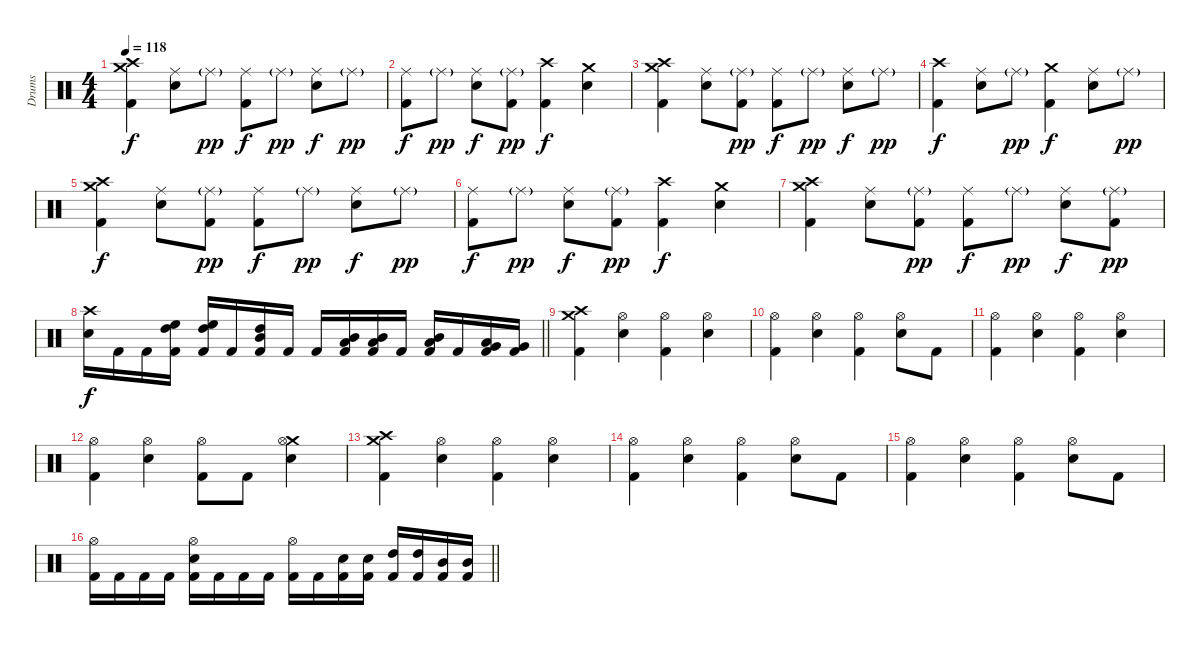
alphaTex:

\track ("Drums" "Drums") {instrument percussion}
\staff {score}
\articulation defaults
\ts (4 4)
\tempo 118
\clef neutral
\ks c
("Crash high (hit)" "Crash medium (hit)" "Kick (hit) 2").4{dy f} ("Ride (middle)" "Electric Snare (hit)").8 "Ride (middle)"{g}.8{dy pp} ("Ride (middle)" "Kick (hit) 2").8{dy f} "Ride (middle)"{g}.8{dy pp} ("Ride (middle)" "Electric Snare (hit)").8{dy f} "Ride (middle)"{g}.8{dy pp} |
("Ride (middle)" "Kick (hit) 2").8{dy f} "Ride (middle)"{g}.8{dy pp} ("Ride (middle)" "Electric Snare (hit)").8{dy f} ("Ride (middle)"{g} "Kick (hit) 2").8{dy pp} ("Crash high (hit)" "Kick (hit) 2").4{dy f} ("Crash medium (hit)" "Electric Snare (hit)").4 |
("Crash high (hit)" "Crash medium (hit)" "Kick (hit) 2").4 ("Ride (middle)" "Electric Snare (hit)").8 ("Ride (middle)"{g} "Kick (hit) 2").8{dy pp} ("Ride (middle)" "Kick (hit) 2").8{dy f} "Ride (middle)"{g}.8{dy pp} ("Ride (middle)" "Electric Snare (hit)").8{dy f} "Ride (middle)"{g}.8{dy pp} |
("Crash high (hit)" "Kick (hit) 2").4{dy f} ("Ride (middle)" "Electric Snare (hit)").8 "Ride (middle)"{g}.8{dy pp} ("Crash medium (hit)" "Kick (hit) 2").4{dy f} ("Ride (middle)" "Electric Snare (hit)").8 "Ride (middle)"{g}.8{dy pp} |
("Crash high (hit)" "Crash medium (hit)" "Kick (hit) 2").4{dy f} ("Ride (middle)" "Electric Snare (hit)").8 ("Ride (middle)"{g} "Kick (hit) 2").8{dy pp} ("Ride (middle)" "Kick (hit) 2").8{dy f} "Ride (middle)"{g}.8{dy pp} ("Ride (middle)" "Electric Snare (hit)").8{dy f} "Ride (middle)"{g}.8{dy pp} |
("Ride (middle)" "Kick (hit) 2").8{dy f} "Ride (middle)"{g}.8{dy pp} ("Ride (middle)" "Electric Snare (hit)").8{dy f} ("Ride (middle)"{g} "Kick (hit) 2").8{dy pp} ("Crash high (hit)" "Kick (hit) 2").4{dy f} ("Crash medium (hit)" "Electric Snare (hit)").4 |
("Crash high (hit)" "Crash medium (hit)" "Kick (hit) 2").4 ("Ride (middle)" "Electric Snare (hit)").8 ("Ride (middle)"{g} "Kick (hit) 2").8{dy pp} ("Ride (middle)" "Kick (hit) 2").8{dy f} "Ride (middle)"{g}.8{dy pp} ("Ride (middle)" "Electric Snare (hit)").8{dy f} ("Ride (middle)"{g} "Kick (hit) 2").8{dy pp} |
\barLineRight lightlight
("Crash high (hit)" "Electric Snare (hit)").16{dy f} "Kick (hit) 2".16 "Kick (hit) 2".16 ("High Floor Tom (hit)" "High Tom (hit)" "Kick (hit) 2").16 ("High Floor Tom (hit)" "High Tom (hit)" "Kick (hit) 2").16 "Kick (hit) 2".16 ("High Tom (hit)" "Mid Tom (hit)" "Kick (hit) 2").16 "Kick (hit) 2".16 "Kick (hit) 2".16 ("Mid Tom (hit)" "Low Tom (hit)" "Kick (hit) 2").16 ("Mid Tom (hit)" "Low Tom (hit)" "Kick (hit) 2").16 "Kick (hit) 2".16 ("Mid Tom (hit)" "Low Tom (hit)" "Kick (hit) 2").16 "Kick (hit) 2".16 ("Low Tom (hit)" "Very Low Tom (hit)" "Kick (hit) 2").16 ("Very Low Tom (hit)" "Kick (hit) 2").16 |
("Crash high (hit)" "Crash medium (hit)" "Kick (hit) 2").4 ("Hi-Hat (open)" "Electric Snare (hit)").4 ("Hi-Hat (open)" "Kick (hit) 2").4 ("Hi-Hat (open)" "Electric Snare (hit)").4 |
("Hi-Hat (open)" "Kick (hit) 2").4 ("Hi-Hat (open)" "Electric Snare (hit)").4 ("Hi-Hat (open)" "Kick (hit) 2").4 ("Hi-Hat (open)" "Electric Snare (hit)").8 "Kick (hit) 2".8 |
("Hi-Hat (open)" "Kick (hit) 2").4 ("Hi-Hat (open)" "Electric Snare (hit)").4 ("Hi-Hat (open)" "Kick (hit) 2").4 ("Hi-Hat (open)" "Electric Snare (hit)").4 |
("Hi-Hat (open)" "Kick (hit) 2").4 ("Hi-Hat (open)" "Electric Snare (hit)").4 ("Hi-Hat (open)" "Kick (hit) 2").8 "Kick (hit) 2".8 ("Crash medium (hit)" "Hi-Hat (open)" "Electric Snare (hit)").4 |
("Crash high (hit)" "Crash medium (hit)" "Kick (hit) 2").4 ("Hi-Hat (open)" "Electric Snare (hit)").4 ("Hi-Hat (open)" "Kick (hit) 2").4 ("Hi-Hat (open)" "Electric Snare (hit)").4 |
("Hi-Hat (open)" "Kick (hit) 2").4 ("Hi-Hat (open)" "Electric Snare (hit)").4 ("Hi-Hat (open)" "Kick (hit) 2").4 ("Hi-Hat (open)" "Electric Snare (hit)").8 "Kick (hit) 2".8 |
("Hi-Hat (open)" "Kick (hit) 2").4 ("Hi-Hat (open)" "Electric Snare (hit)").4 ("Hi-Hat (open)" "Kick (hit) 2").4 ("Hi-Hat (open)" "Electric Snare (hit)").8 "Kick (hit) 2".8 |
\barLineRight lightlight
("Hi-Hat (open)" "Kick (hit) 2").16 "Kick (hit) 2".16 "Kick (hit) 2".16 "Kick (hit) 2".16 ("Hi-Hat (open)" "Electric Snare (hit)" "Kick (hit) 2").16 "Kick (hit) 2".16 "Kick (hit) 2".16 "Kick (hit) 2".16 ("Hi-Hat (open)" "Kick (hit) 2").16 "Kick (hit) 2".16 ("Electric Snare (hit)" "Kick (hit) 2").16 ("Electric Snare (hit)" "Kick (hit) 2").16 ("High Tom (hit)" "Kick (hit) 2").16 ("High Tom (hit)" "Kick (hit) 2").16 ("Mid Tom (hit)" "Kick (hit) 2").16 ("Mid Tom (hit)" "Kick (hit) 2").16
